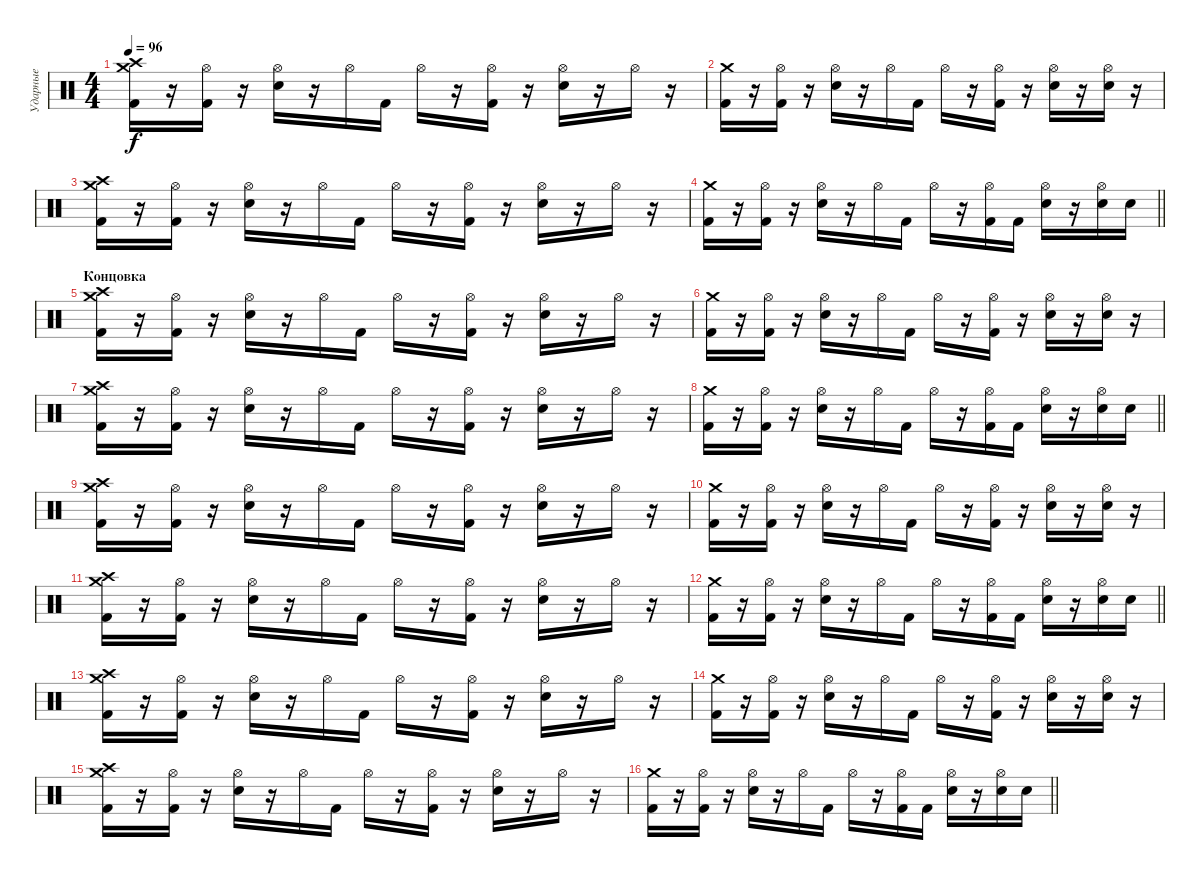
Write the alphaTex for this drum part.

\track ("Ударные" "Ударные") {instrument percussion}
\staff {score}
\articulation defaults
\ts (4 4)
\tempo 96
\clef neutral
\ks c
("Crash medium (hit)" "Kick (hit) 2" "Crash high (hit)").16{dy f} r.16 ("Hi-Hat (open)" "Kick (hit) 2").16 r.16 ("Hi-Hat (open)" "Electric Snare (hit)").16 r.16 "Hi-Hat (open)".16 "Kick (hit) 2".16 "Hi-Hat (open)".16 r.16 ("Hi-Hat (open)" "Kick (hit) 2").16 r.16 ("Hi-Hat (open)" "Electric Snare (hit)").16 r.16 "Hi-Hat (open)".16 r.16 |
("Crash medium (hit)" "Kick (hit) 2").16 r.16 ("Hi-Hat (open)" "Kick (hit) 2").16 r.16 ("Hi-Hat (open)" "Electric Snare (hit)").16 r.16 "Hi-Hat (open)".16 "Kick (hit) 2".16 "Hi-Hat (open)".16 r.16 ("Hi-Hat (open)" "Kick (hit) 2").16 r.16 ("Hi-Hat (open)" "Electric Snare (hit)").16 r.16 ("Hi-Hat (open)" "Electric Snare (hit)").16 r.16 |
("Crash medium (hit)" "Kick (hit) 2" "Crash high (hit)").16 r.16 ("Hi-Hat (open)" "Kick (hit) 2").16 r.16 ("Hi-Hat (open)" "Electric Snare (hit)").16 r.16 "Hi-Hat (open)".16 "Kick (hit) 2".16 "Hi-Hat (open)".16 r.16 ("Hi-Hat (open)" "Kick (hit) 2").16 r.16 ("Hi-Hat (open)" "Electric Snare (hit)").16 r.16 "Hi-Hat (open)".16 r.16 |
\barLineRight lightlight
("Crash medium (hit)" "Kick (hit) 2").16 r.16 ("Hi-Hat (open)" "Kick (hit) 2").16 r.16 ("Hi-Hat (open)" "Electric Snare (hit)").16 r.16 "Hi-Hat (open)".16 "Kick (hit) 2".16 "Hi-Hat (open)".16 r.16 ("Hi-Hat (open)" "Kick (hit) 2").16 "Kick (hit) 2".16 ("Hi-Hat (open)" "Electric Snare (hit)").16 r.16 ("Hi-Hat (open)" "Electric Snare (hit)").16 "Electric Snare (hit)".16 |
\section ("" "Концовка")
("Crash medium (hit)" "Kick (hit) 2" "Crash high (hit)").16 r.16 ("Hi-Hat (open)" "Kick (hit) 2").16 r.16 ("Hi-Hat (open)" "Electric Snare (hit)").16 r.16 "Hi-Hat (open)".16 "Kick (hit) 2".16 "Hi-Hat (open)".16 r.16 ("Hi-Hat (open)" "Kick (hit) 2").16 r.16 ("Hi-Hat (open)" "Electric Snare (hit)").16 r.16 "Hi-Hat (open)".16 r.16 |
("Crash medium (hit)" "Kick (hit) 2").16 r.16 ("Hi-Hat (open)" "Kick (hit) 2").16 r.16 ("Hi-Hat (open)" "Electric Snare (hit)").16 r.16 "Hi-Hat (open)".16 "Kick (hit) 2".16 "Hi-Hat (open)".16 r.16 ("Hi-Hat (open)" "Kick (hit) 2").16 r.16 ("Hi-Hat (open)" "Electric Snare (hit)").16 r.16 ("Hi-Hat (open)" "Electric Snare (hit)").16 r.16 |
("Crash medium (hit)" "Kick (hit) 2" "Crash high (hit)").16 r.16 ("Hi-Hat (open)" "Kick (hit) 2").16 r.16 ("Hi-Hat (open)" "Electric Snare (hit)").16 r.16 "Hi-Hat (open)".16 "Kick (hit) 2".16 "Hi-Hat (open)".16 r.16 ("Hi-Hat (open)" "Kick (hit) 2").16 r.16 ("Hi-Hat (open)" "Electric Snare (hit)").16 r.16 "Hi-Hat (open)".16 r.16 |
\barLineRight lightlight
("Crash medium (hit)" "Kick (hit) 2").16 r.16 ("Hi-Hat (open)" "Kick (hit) 2").16 r.16 ("Hi-Hat (open)" "Electric Snare (hit)").16 r.16 "Hi-Hat (open)".16 "Kick (hit) 2".16 "Hi-Hat (open)".16 r.16 ("Hi-Hat (open)" "Kick (hit) 2").16 "Kick (hit) 2".16 ("Hi-Hat (open)" "Electric Snare (hit)").16 r.16 ("Hi-Hat (open)" "Electric Snare (hit)").16 "Electric Snare (hit)".16 |
("Crash medium (hit)" "Kick (hit) 2" "Crash high (hit)").16 r.16 ("Hi-Hat (open)" "Kick (hit) 2").16 r.16 ("Hi-Hat (open)" "Electric Snare (hit)").16 r.16 "Hi-Hat (open)".16 "Kick (hit) 2".16 "Hi-Hat (open)".16 r.16 ("Hi-Hat (open)" "Kick (hit) 2").16 r.16 ("Hi-Hat (open)" "Electric Snare (hit)").16 r.16 "Hi-Hat (open)".16 r.16 |
("Crash medium (hit)" "Kick (hit) 2").16 r.16 ("Hi-Hat (open)" "Kick (hit) 2").16 r.16 ("Hi-Hat (open)" "Electric Snare (hit)").16 r.16 "Hi-Hat (open)".16 "Kick (hit) 2".16 "Hi-Hat (open)".16 r.16 ("Hi-Hat (open)" "Kick (hit) 2").16 r.16 ("Hi-Hat (open)" "Electric Snare (hit)").16 r.16 ("Hi-Hat (open)" "Electric Snare (hit)").16 r.16 |
("Crash medium (hit)" "Kick (hit) 2" "Crash high (hit)").16 r.16 ("Hi-Hat (open)" "Kick (hit) 2").16 r.16 ("Hi-Hat (open)" "Electric Snare (hit)").16 r.16 "Hi-Hat (open)".16 "Kick (hit) 2".16 "Hi-Hat (open)".16 r.16 ("Hi-Hat (open)" "Kick (hit) 2").16 r.16 ("Hi-Hat (open)" "Electric Snare (hit)").16 r.16 "Hi-Hat (open)".16 r.16 |
\barLineRight lightlight
("Crash medium (hit)" "Kick (hit) 2").16 r.16 ("Hi-Hat (open)" "Kick (hit) 2").16 r.16 ("Hi-Hat (open)" "Electric Snare (hit)").16 r.16 "Hi-Hat (open)".16 "Kick (hit) 2".16 "Hi-Hat (open)".16 r.16 ("Hi-Hat (open)" "Kick (hit) 2").16 "Kick (hit) 2".16 ("Hi-Hat (open)" "Electric Snare (hit)").16 r.16 ("Hi-Hat (open)" "Electric Snare (hit)").16 "Electric Snare (hit)".16 |
("Crash medium (hit)" "Kick (hit) 2" "Crash high (hit)").16 r.16 ("Hi-Hat (open)" "Kick (hit) 2").16 r.16 ("Hi-Hat (open)" "Electric Snare (hit)").16 r.16 "Hi-Hat (open)".16 "Kick (hit) 2".16 "Hi-Hat (open)".16 r.16 ("Hi-Hat (open)" "Kick (hit) 2").16 r.16 ("Hi-Hat (open)" "Electric Snare (hit)").16 r.16 "Hi-Hat (open)".16 r.16 |
("Crash medium (hit)" "Kick (hit) 2").16 r.16 ("Hi-Hat (open)" "Kick (hit) 2").16 r.16 ("Hi-Hat (open)" "Electric Snare (hit)").16 r.16 "Hi-Hat (open)".16 "Kick (hit) 2".16 "Hi-Hat (open)".16 r.16 ("Hi-Hat (open)" "Kick (hit) 2").16 r.16 ("Hi-Hat (open)" "Electric Snare (hit)").16 r.16 ("Hi-Hat (open)" "Electric Snare (hit)").16 r.16 |
("Crash medium (hit)" "Kick (hit) 2" "Crash high (hit)").16 r.16 ("Hi-Hat (open)" "Kick (hit) 2").16 r.16 ("Hi-Hat (open)" "Electric Snare (hit)").16 r.16 "Hi-Hat (open)".16 "Kick (hit) 2".16 "Hi-Hat (open)".16 r.16 ("Hi-Hat (open)" "Kick (hit) 2").16 r.16 ("Hi-Hat (open)" "Electric Snare (hit)").16 r.16 "Hi-Hat (open)".16 r.16 |
\barLineRight lightlight
("Crash medium (hit)" "Kick (hit) 2").16 r.16 ("Hi-Hat (open)" "Kick (hit) 2").16 r.16 ("Hi-Hat (open)" "Electric Snare (hit)").16 r.16 "Hi-Hat (open)".16 "Kick (hit) 2".16 "Hi-Hat (open)".16 r.16 ("Hi-Hat (open)" "Kick (hit) 2").16 "Kick (hit) 2".16 ("Hi-Hat (open)" "Electric Snare (hit)").16 r.16 ("Hi-Hat (open)" "Electric Snare (hit)").16 "Electric Snare (hit)".16
